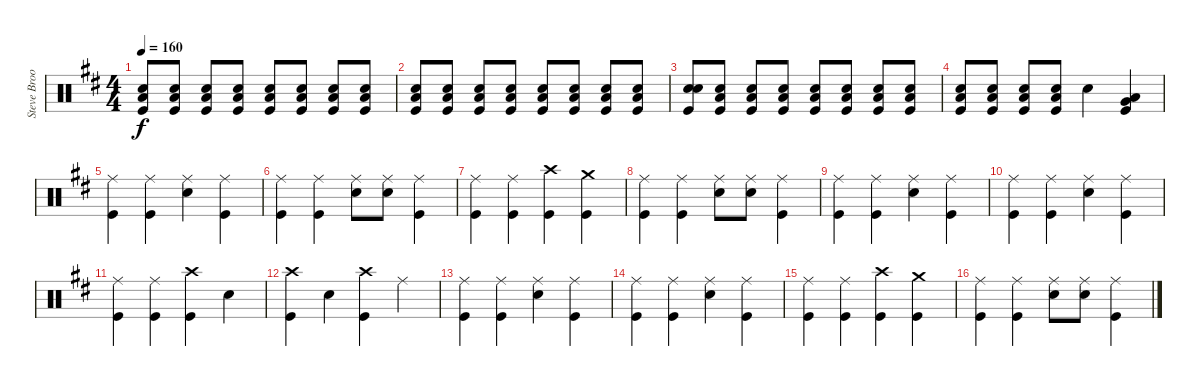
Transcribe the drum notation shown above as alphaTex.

\track ("Steve Brookins Drums" "Steve Broo") {instrument percussion}
\staff {score}
\articulation defaults
\ts (4 4)
\tempo 160
\clef neutral
\ks d
("Snare (hit) 2" "Low Floor Tom (hit)" "Kick (hit)").8{dy f volume 12} ("Snare (hit) 2" "Low Floor Tom (hit)" "Kick (hit)").8 ("Snare (hit) 2" "Low Floor Tom (hit)" "Kick (hit)").8 ("Snare (hit) 2" "Low Floor Tom (hit)" "Kick (hit)").8 ("Snare (hit) 2" "Low Floor Tom (hit)" "Kick (hit)").8 ("Snare (hit) 2" "Low Floor Tom (hit)" "Kick (hit)").8 ("Snare (hit) 2" "Low Floor Tom (hit)" "Kick (hit)").8 ("Snare (hit) 2" "Low Floor Tom (hit)" "Kick (hit)").8 |
("Snare (hit) 2" "Low Floor Tom (hit)" "Kick (hit)").8 ("Snare (hit) 2" "Low Floor Tom (hit)" "Kick (hit)").8 ("Snare (hit) 2" "Low Floor Tom (hit)" "Kick (hit)").8 ("Snare (hit) 2" "Low Floor Tom (hit)" "Kick (hit)").8 ("Snare (hit) 2" "Low Floor Tom (hit)" "Kick (hit)").8 ("Snare (hit) 2" "Low Floor Tom (hit)" "Kick (hit)").8 ("Snare (hit) 2" "Low Floor Tom (hit)" "Kick (hit)").8 ("Snare (hit) 2" "Low Floor Tom (hit)" "Kick (hit)").8 |
("Snare (hit) 2" "Snare (hit)" "Kick (hit)").8 ("Snare (hit) 2" "Low Floor Tom (hit)" "Kick (hit)").8 ("Snare (hit) 2" "Low Floor Tom (hit)" "Kick (hit)").8 ("Snare (hit) 2" "Low Floor Tom (hit)" "Kick (hit)").8 ("Snare (hit) 2" "Low Floor Tom (hit)" "Kick (hit)").8 ("Snare (hit) 2" "Low Floor Tom (hit)" "Kick (hit)").8 ("Snare (hit) 2" "Low Floor Tom (hit)" "Kick (hit)").8 ("Snare (hit) 2" "Low Floor Tom (hit)" "Kick (hit)").8 |
("Snare (hit) 2" "Low Floor Tom (hit)" "Kick (hit)").8 ("Snare (hit) 2" "Low Floor Tom (hit)" "Kick (hit)").8 ("Snare (hit) 2" "Low Floor Tom (hit)" "Kick (hit)").8 ("Snare (hit) 2" "Low Floor Tom (hit)" "Kick (hit)").8 "Snare (hit) 2".4 ("Very Low Tom (hit)" "Low Floor Tom (hit)" "Kick (hit)").4 |
("Ride (middle)" "Kick (hit)").4 ("Ride (middle)" "Kick (hit)").4 ("Ride (middle)" "Snare (hit) 2").4 ("Ride (middle)" "Kick (hit)").4 |
("Ride (middle)" "Kick (hit)").4 ("Ride (middle)" "Kick (hit)").4 ("Ride (middle)" "Snare (hit) 2").8 ("Ride (middle)" "Snare (hit) 2").8 ("Ride (middle)" "Kick (hit)").4 |
("Ride (middle)" "Kick (hit)").4 ("Ride (middle)" "Kick (hit)").4 ("Crash high (hit)" "Kick (hit)").4 ("Crash medium (hit)" "Kick (hit)").4 |
("Ride (middle)" "Kick (hit)").4 ("Ride (middle)" "Kick (hit)").4 ("Ride (middle)" "Snare (hit) 2").8 ("Ride (middle)" "Snare (hit) 2").8 ("Ride (middle)" "Kick (hit)").4 |
("Ride (middle)" "Kick (hit)").4 ("Ride (middle)" "Kick (hit)").4 ("Ride (middle)" "Snare (hit) 2").4 ("Ride (middle)" "Kick (hit)").4 |
("Ride (middle)" "Kick (hit)").4 ("Ride (middle)" "Kick (hit)").4 ("Ride (middle)" "Snare (hit) 2").4 ("Ride (middle)" "Kick (hit)").4 |
("Ride (middle)" "Kick (hit)").4 ("Ride (middle)" "Kick (hit)").4 ("Crash high (hit)" "Kick (hit)").4 "Snare (hit) 2".4 |
("Crash high (hit)" "Kick (hit)").4 "Snare (hit) 2".4 ("Crash high (hit)" "Kick (hit)").4 "Ride (middle)".4 |
("Ride (middle)" "Kick (hit)").4 ("Ride (middle)" "Kick (hit)").4 ("Ride (middle)" "Snare (hit) 2").4 ("Ride (middle)" "Kick (hit)").4 |
("Ride (middle)" "Kick (hit)").4 ("Ride (middle)" "Kick (hit)").4 ("Ride (middle)" "Snare (hit) 2").4 ("Ride (middle)" "Kick (hit)").4 |
("Ride (middle)" "Kick (hit)").4 ("Ride (middle)" "Kick (hit)").4 ("Crash high (hit)" "Kick (hit)").4 ("Crash medium (hit)" "Kick (hit)").4 |
("Ride (middle)" "Kick (hit)").4 ("Ride (middle)" "Kick (hit)").4 ("Ride (middle)" "Snare (hit) 2").8 ("Ride (middle)" "Snare (hit) 2").8 ("Ride (middle)" "Kick (hit)").4
